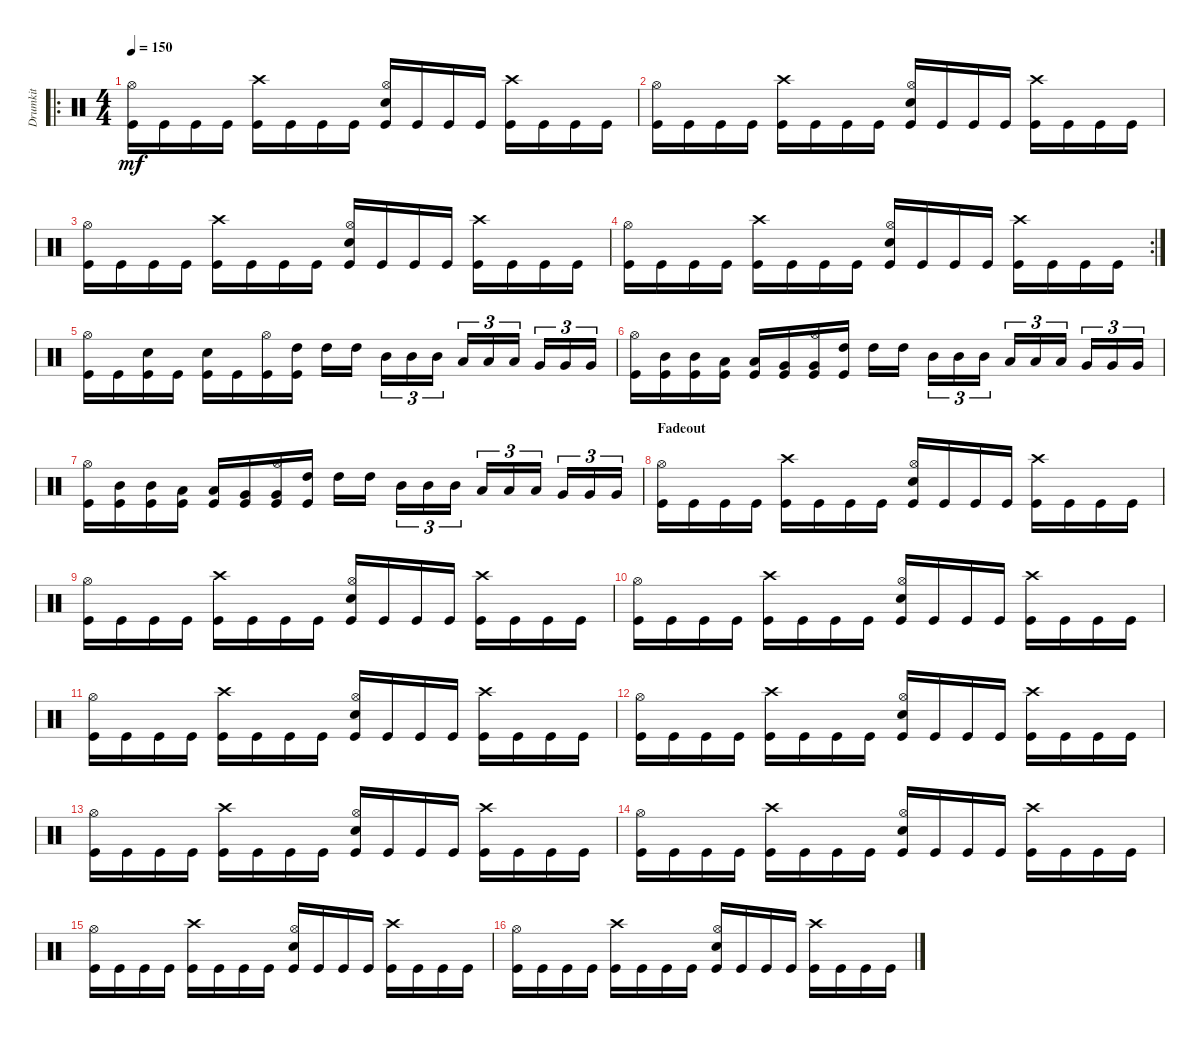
\track ("Drumkit" "Drumkit") {instrument percussion}
\staff {score}
\articulation defaults
\ro
\ts (4 4)
\tempo 150
\clef neutral
\ks c
("Kick (hit)" "Hi-Hat (open)").16{dy mf} "Kick (hit)".16 "Kick (hit)".16 "Kick (hit)".16 ("Crash high (hit)" "Kick (hit)").16 "Kick (hit)".16 "Kick (hit)".16 "Kick (hit)".16 ("Snare (hit) 2" "Hi-Hat (open)" "Kick (hit)").16 "Kick (hit)".16 "Kick (hit)".16 "Kick (hit)".16 ("Crash high (hit)" "Kick (hit)").16 "Kick (hit)".16 "Kick (hit)".16 "Kick (hit)".16 |
("Kick (hit)" "Hi-Hat (open)").16 "Kick (hit)".16 "Kick (hit)".16 "Kick (hit)".16 ("Crash high (hit)" "Kick (hit)").16 "Kick (hit)".16 "Kick (hit)".16 "Kick (hit)".16 ("Snare (hit) 2" "Hi-Hat (open)" "Kick (hit)").16 "Kick (hit)".16 "Kick (hit)".16 "Kick (hit)".16 ("Crash high (hit)" "Kick (hit)").16 "Kick (hit)".16 "Kick (hit)".16 "Kick (hit)".16 |
("Kick (hit)" "Hi-Hat (open)").16 "Kick (hit)".16 "Kick (hit)".16 "Kick (hit)".16 ("Crash high (hit)" "Kick (hit)").16 "Kick (hit)".16 "Kick (hit)".16 "Kick (hit)".16 ("Snare (hit) 2" "Hi-Hat (open)" "Kick (hit)").16 "Kick (hit)".16 "Kick (hit)".16 "Kick (hit)".16 ("Crash high (hit)" "Kick (hit)").16 "Kick (hit)".16 "Kick (hit)".16 "Kick (hit)".16 |
\rc 2
("Kick (hit)" "Hi-Hat (open)").16 "Kick (hit)".16 "Kick (hit)".16 "Kick (hit)".16 ("Crash high (hit)" "Kick (hit)").16 "Kick (hit)".16 "Kick (hit)".16 "Kick (hit)".16 ("Snare (hit) 2" "Hi-Hat (open)" "Kick (hit)").16 "Kick (hit)".16 "Kick (hit)".16 "Kick (hit)".16 ("Crash high (hit)" "Kick (hit)").16 "Kick (hit)".16 "Kick (hit)".16 "Kick (hit)".16 |
("Hi-Hat (open)" "Kick (hit)").16 "Kick (hit)".16 ("Snare (hit) 2" "Kick (hit)").16 "Kick (hit)".16 ("Snare (hit) 2" "Kick (hit)").16 "Kick (hit)".16 ("Hi-Hat (open)" "Kick (hit)").16 ("High Tom (hit)" "Kick (hit)").16 "High Tom (hit)".16 "High Tom (hit)".16 "Mid Tom (hit)".16{tu (3 2)} "Mid Tom (hit)".16{tu (3 2)} "Mid Tom (hit)".16{tu (3 2)} "Low Tom (hit)".16{tu (3 2)} "Low Tom (hit)".16{tu (3 2)} "Low Tom (hit)".16{tu (3 2)} "Very Low Tom (hit)".16{tu (3 2)} "Very Low Tom (hit)".16{tu (3 2)} "Very Low Tom (hit)".16{tu (3 2)} |
("Hi-Hat (open)" "Kick (hit)").16 ("Kick (hit)" "Mid Tom (hit)").16 ("Kick (hit)" "Mid Tom (hit)").16 ("Kick (hit)" "Low Tom (hit)").16 ("Kick (hit)" "Low Tom (hit)").16 ("Kick (hit)" "Very Low Tom (hit)").16 ("Hi-Hat (open)" "Kick (hit)" "Very Low Tom (hit)").16 ("High Tom (hit)" "Kick (hit)").16 "High Tom (hit)".16 "High Tom (hit)".16 "Mid Tom (hit)".16{tu (3 2)} "Mid Tom (hit)".16{tu (3 2)} "Mid Tom (hit)".16{tu (3 2)} "Low Tom (hit)".16{tu (3 2)} "Low Tom (hit)".16{tu (3 2)} "Low Tom (hit)".16{tu (3 2)} "Very Low Tom (hit)".16{tu (3 2)} "Very Low Tom (hit)".16{tu (3 2)} "Very Low Tom (hit)".16{tu (3 2)} |
("Hi-Hat (open)" "Kick (hit)").16 ("Kick (hit)" "Mid Tom (hit)").16 ("Kick (hit)" "Mid Tom (hit)").16 ("Kick (hit)" "Low Tom (hit)").16 ("Kick (hit)" "Low Tom (hit)").16 ("Kick (hit)" "Very Low Tom (hit)").16 ("Hi-Hat (open)" "Kick (hit)" "Very Low Tom (hit)").16 ("High Tom (hit)" "Kick (hit)").16 "High Tom (hit)".16 "High Tom (hit)".16 "Mid Tom (hit)".16{tu (3 2)} "Mid Tom (hit)".16{tu (3 2)} "Mid Tom (hit)".16{tu (3 2)} "Low Tom (hit)".16{tu (3 2)} "Low Tom (hit)".16{tu (3 2)} "Low Tom (hit)".16{tu (3 2)} "Very Low Tom (hit)".16{tu (3 2)} "Very Low Tom (hit)".16{tu (3 2)} "Very Low Tom (hit)".16{tu (3 2)} |
\section ("" "Fadeout")
("Kick (hit)" "Hi-Hat (open)").16 "Kick (hit)".16 "Kick (hit)".16 "Kick (hit)".16 ("Crash high (hit)" "Kick (hit)").16 "Kick (hit)".16 "Kick (hit)".16 "Kick (hit)".16 ("Snare (hit) 2" "Hi-Hat (open)" "Kick (hit)").16 "Kick (hit)".16 "Kick (hit)".16 "Kick (hit)".16 ("Crash high (hit)" "Kick (hit)").16 "Kick (hit)".16 "Kick (hit)".16 "Kick (hit)".16 |
("Kick (hit)" "Hi-Hat (open)").16 "Kick (hit)".16 "Kick (hit)".16 "Kick (hit)".16 ("Crash high (hit)" "Kick (hit)").16 "Kick (hit)".16 "Kick (hit)".16 "Kick (hit)".16 ("Snare (hit) 2" "Hi-Hat (open)" "Kick (hit)").16 "Kick (hit)".16 "Kick (hit)".16 "Kick (hit)".16 ("Crash high (hit)" "Kick (hit)").16 "Kick (hit)".16 "Kick (hit)".16 "Kick (hit)".16 |
("Kick (hit)" "Hi-Hat (open)").16 "Kick (hit)".16 "Kick (hit)".16 "Kick (hit)".16 ("Crash high (hit)" "Kick (hit)").16 "Kick (hit)".16 "Kick (hit)".16 "Kick (hit)".16 ("Snare (hit) 2" "Hi-Hat (open)" "Kick (hit)").16 "Kick (hit)".16 "Kick (hit)".16 "Kick (hit)".16 ("Crash high (hit)" "Kick (hit)").16 "Kick (hit)".16 "Kick (hit)".16 "Kick (hit)".16 |
("Kick (hit)" "Hi-Hat (open)").16 "Kick (hit)".16 "Kick (hit)".16 "Kick (hit)".16 ("Crash high (hit)" "Kick (hit)").16 "Kick (hit)".16 "Kick (hit)".16 "Kick (hit)".16 ("Snare (hit) 2" "Hi-Hat (open)" "Kick (hit)").16 "Kick (hit)".16 "Kick (hit)".16 "Kick (hit)".16 ("Crash high (hit)" "Kick (hit)").16 "Kick (hit)".16 "Kick (hit)".16 "Kick (hit)".16 |
("Kick (hit)" "Hi-Hat (open)").16 "Kick (hit)".16 "Kick (hit)".16 "Kick (hit)".16 ("Crash high (hit)" "Kick (hit)").16 "Kick (hit)".16 "Kick (hit)".16 "Kick (hit)".16 ("Snare (hit) 2" "Hi-Hat (open)" "Kick (hit)").16 "Kick (hit)".16 "Kick (hit)".16 "Kick (hit)".16 ("Crash high (hit)" "Kick (hit)").16 "Kick (hit)".16 "Kick (hit)".16 "Kick (hit)".16 |
("Kick (hit)" "Hi-Hat (open)").16 "Kick (hit)".16 "Kick (hit)".16 "Kick (hit)".16 ("Crash high (hit)" "Kick (hit)").16 "Kick (hit)".16 "Kick (hit)".16 "Kick (hit)".16 ("Snare (hit) 2" "Hi-Hat (open)" "Kick (hit)").16 "Kick (hit)".16 "Kick (hit)".16 "Kick (hit)".16 ("Crash high (hit)" "Kick (hit)").16 "Kick (hit)".16 "Kick (hit)".16 "Kick (hit)".16 |
("Kick (hit)" "Hi-Hat (open)").16 "Kick (hit)".16 "Kick (hit)".16 "Kick (hit)".16 ("Crash high (hit)" "Kick (hit)").16 "Kick (hit)".16 "Kick (hit)".16 "Kick (hit)".16 ("Snare (hit) 2" "Hi-Hat (open)" "Kick (hit)").16 "Kick (hit)".16 "Kick (hit)".16 "Kick (hit)".16 ("Crash high (hit)" "Kick (hit)").16 "Kick (hit)".16 "Kick (hit)".16 "Kick (hit)".16 |
("Kick (hit)" "Hi-Hat (open)").16 "Kick (hit)".16 "Kick (hit)".16 "Kick (hit)".16 ("Crash high (hit)" "Kick (hit)").16 "Kick (hit)".16 "Kick (hit)".16 "Kick (hit)".16 ("Snare (hit) 2" "Hi-Hat (open)" "Kick (hit)").16 "Kick (hit)".16 "Kick (hit)".16 "Kick (hit)".16 ("Crash high (hit)" "Kick (hit)").16 "Kick (hit)".16 "Kick (hit)".16 "Kick (hit)".16 |
("Kick (hit)" "Hi-Hat (open)").16 "Kick (hit)".16 "Kick (hit)".16 "Kick (hit)".16 ("Crash high (hit)" "Kick (hit)").16 "Kick (hit)".16 "Kick (hit)".16 "Kick (hit)".16 ("Snare (hit) 2" "Hi-Hat (open)" "Kick (hit)").16 "Kick (hit)".16 "Kick (hit)".16 "Kick (hit)".16 ("Crash high (hit)" "Kick (hit)").16 "Kick (hit)".16 "Kick (hit)".16 "Kick (hit)".16
